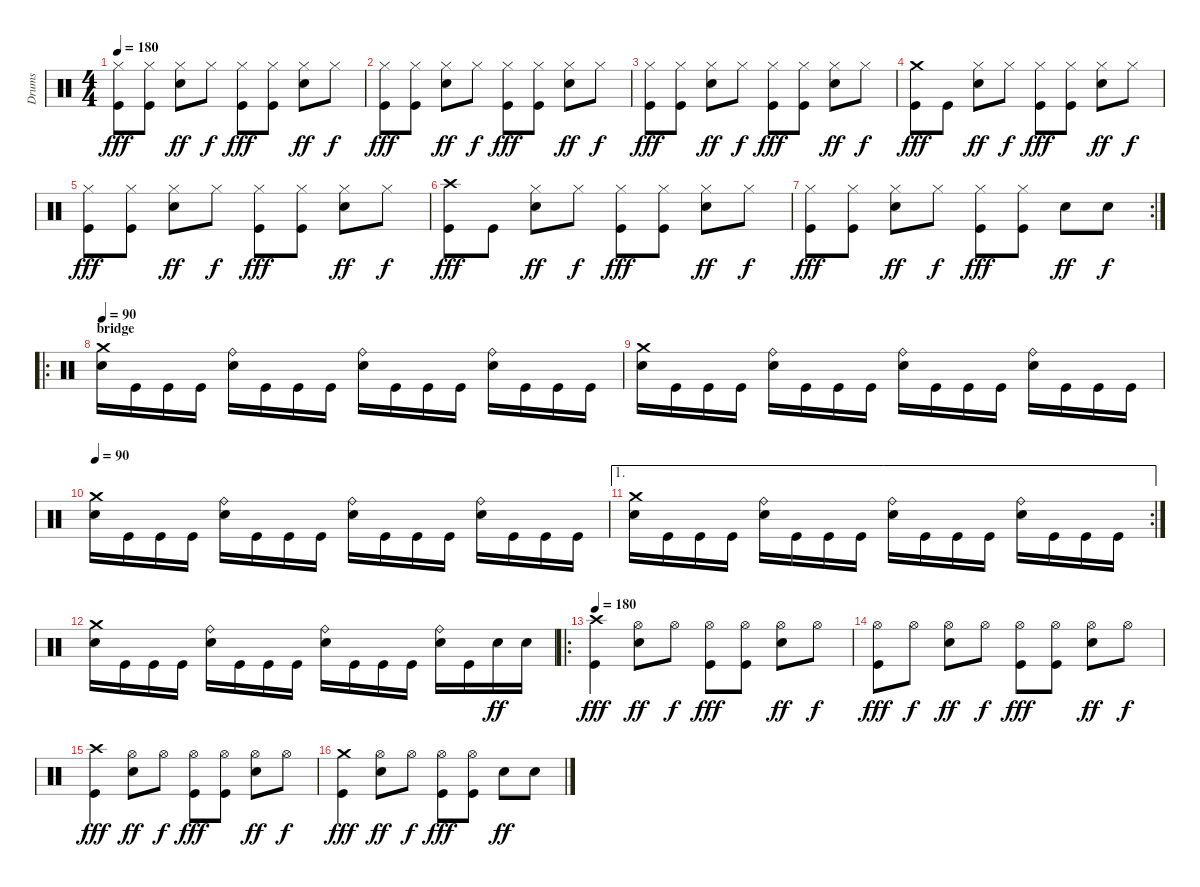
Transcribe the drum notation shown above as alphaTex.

\track ("Drums" "Drums") {instrument percussion}
\staff {score}
\articulation defaults
\ts (4 4)
\tempo 180
\clef neutral
\ks aminor
("Hi-Hat (closed)" "Kick (hit)").8{dy fff} ("Hi-Hat (closed)" "Kick (hit)").8 ("Hi-Hat (closed)" "Snare (hit) 2").8{dy ff} "Hi-Hat (closed)".8{dy f} ("Hi-Hat (closed)" "Kick (hit)").8{dy fff} ("Hi-Hat (closed)" "Kick (hit)").8 ("Hi-Hat (closed)" "Snare (hit) 2").8{dy ff} "Hi-Hat (closed)".8{dy f} |
("Hi-Hat (closed)" "Kick (hit)").8{dy fff} ("Hi-Hat (closed)" "Kick (hit)").8 ("Hi-Hat (closed)" "Snare (hit) 2").8{dy ff} "Hi-Hat (closed)".8{dy f} ("Hi-Hat (closed)" "Kick (hit)").8{dy fff} ("Hi-Hat (closed)" "Kick (hit)").8 ("Hi-Hat (closed)" "Snare (hit) 2").8{dy ff} "Hi-Hat (closed)".8{dy f} |
("Hi-Hat (closed)" "Kick (hit)").8{dy fff} ("Hi-Hat (closed)" "Kick (hit)").8 ("Hi-Hat (closed)" "Snare (hit) 2").8{dy ff} "Hi-Hat (closed)".8{dy f} ("Hi-Hat (closed)" "Kick (hit)").8{dy fff} ("Hi-Hat (closed)" "Kick (hit)").8 ("Hi-Hat (closed)" "Snare (hit) 2").8{dy ff} "Hi-Hat (closed)".8{dy f} |
("Crash medium (hit)" "Kick (hit)").8{dy fff} "Kick (hit)".8 ("Hi-Hat (closed)" "Snare (hit) 2").8{dy ff} "Hi-Hat (closed)".8{dy f} ("Hi-Hat (closed)" "Kick (hit)").8{dy fff} ("Hi-Hat (closed)" "Kick (hit)").8 ("Hi-Hat (closed)" "Snare (hit) 2").8{dy ff} "Hi-Hat (closed)".8{dy f} |
("Hi-Hat (closed)" "Kick (hit)").8{dy fff} ("Hi-Hat (closed)" "Kick (hit)").8 ("Hi-Hat (closed)" "Snare (hit) 2").8{dy ff} "Hi-Hat (closed)".8{dy f} ("Hi-Hat (closed)" "Kick (hit)").8{dy fff} ("Hi-Hat (closed)" "Kick (hit)").8 ("Hi-Hat (closed)" "Snare (hit) 2").8{dy ff} "Hi-Hat (closed)".8{dy f} |
("Crash high (hit)" "Kick (hit)").8{dy fff} "Kick (hit)".8 ("Hi-Hat (closed)" "Snare (hit) 2").8{dy ff} "Hi-Hat (closed)".8{dy f} ("Hi-Hat (closed)" "Kick (hit)").8{dy fff} ("Hi-Hat (closed)" "Kick (hit)").8 ("Hi-Hat (closed)" "Snare (hit) 2").8{dy ff} "Hi-Hat (closed)".8{dy f} |
\rc 2
("Hi-Hat (closed)" "Kick (hit)").8{dy fff} ("Hi-Hat (closed)" "Kick (hit)").8 ("Hi-Hat (closed)" "Snare (hit) 2").8{dy ff} "Hi-Hat (closed)".8{dy f} ("Hi-Hat (closed)" "Kick (hit)").8{dy fff} ("Hi-Hat (closed)" "Kick (hit)").8 "Snare (hit) 2".8{dy ff} "Snare (hit) 2".8{dy f} |
\ro
\section ("" "bridge")
\tempo 90
("Crash medium (hit)" "Snare (hit) 2").16 "Kick (hit)".16 "Kick (hit)".16 "Kick (hit)".16 ("Ride (bell)" "Snare (hit) 2").16 "Kick (hit)".16 "Kick (hit)".16 "Kick (hit)".16 ("Ride (bell)" "Snare (hit) 2").16 "Kick (hit)".16 "Kick (hit)".16 "Kick (hit)".16 ("Ride (bell)" "Snare (hit) 2").16 "Kick (hit)".16 "Kick (hit)".16 "Kick (hit)".16 |
("Crash medium (hit)" "Snare (hit) 2").16 "Kick (hit)".16 "Kick (hit)".16 "Kick (hit)".16 ("Ride (bell)" "Snare (hit) 2").16 "Kick (hit)".16 "Kick (hit)".16 "Kick (hit)".16 ("Ride (bell)" "Snare (hit) 2").16 "Kick (hit)".16 "Kick (hit)".16 "Kick (hit)".16 ("Ride (bell)" "Snare (hit) 2").16 "Kick (hit)".16 "Kick (hit)".16 "Kick (hit)".16 |
\tempo 90
("Crash medium (hit)" "Snare (hit) 2").16 "Kick (hit)".16 "Kick (hit)".16 "Kick (hit)".16 ("Ride (bell)" "Snare (hit) 2").16 "Kick (hit)".16 "Kick (hit)".16 "Kick (hit)".16 ("Ride (bell)" "Snare (hit) 2").16 "Kick (hit)".16 "Kick (hit)".16 "Kick (hit)".16 ("Ride (bell)" "Snare (hit) 2").16 "Kick (hit)".16 "Kick (hit)".16 "Kick (hit)".16 |
\ae 1
\rc 2
("Crash medium (hit)" "Snare (hit) 2").16 "Kick (hit)".16 "Kick (hit)".16 "Kick (hit)".16 ("Ride (bell)" "Snare (hit) 2").16 "Kick (hit)".16 "Kick (hit)".16 "Kick (hit)".16 ("Ride (bell)" "Snare (hit) 2").16 "Kick (hit)".16 "Kick (hit)".16 "Kick (hit)".16 ("Ride (bell)" "Snare (hit) 2").16 "Kick (hit)".16 "Kick (hit)".16 "Kick (hit)".16 |
("Crash medium (hit)" "Snare (hit) 2").16 "Kick (hit)".16 "Kick (hit)".16 "Kick (hit)".16 ("Ride (bell)" "Snare (hit) 2").16 "Kick (hit)".16 "Kick (hit)".16 "Kick (hit)".16 ("Ride (bell)" "Snare (hit) 2").16 "Kick (hit)".16 "Kick (hit)".16 "Kick (hit)".16 ("Ride (bell)" "Snare (hit) 2").16 "Kick (hit)".16 "Snare (hit) 2".16{dy ff} "Snare (hit) 2".16 |
\ro
\tempo 180
("Crash high (hit)" "Kick (hit)").4{dy fff} ("Hi-Hat (open)" "Snare (hit) 2").8{dy ff} "Hi-Hat (open)".8{dy f} ("Hi-Hat (open)" "Kick (hit)").8{dy fff} ("Hi-Hat (open)" "Kick (hit)").8 ("Hi-Hat (open)" "Snare (hit) 2").8{dy ff} "Hi-Hat (open)".8{dy f} |
("Hi-Hat (open)" "Kick (hit)").8{dy fff} "Hi-Hat (open)".8{dy f} ("Hi-Hat (open)" "Snare (hit) 2").8{dy ff} "Hi-Hat (open)".8{dy f} ("Hi-Hat (open)" "Kick (hit)").8{dy fff} ("Hi-Hat (open)" "Kick (hit)").8 ("Hi-Hat (open)" "Snare (hit) 2").8{dy ff} "Hi-Hat (open)".8{dy f} |
("Crash high (hit)" "Kick (hit)").4{dy fff} ("Hi-Hat (open)" "Snare (hit) 2").8{dy ff} "Hi-Hat (open)".8{dy f} ("Hi-Hat (open)" "Kick (hit)").8{dy fff} ("Hi-Hat (open)" "Kick (hit)").8 ("Hi-Hat (open)" "Snare (hit) 2").8{dy ff} "Hi-Hat (open)".8{dy f} |
("Crash medium (hit)" "Kick (hit)").4{dy fff} ("Hi-Hat (open)" "Snare (hit) 2").8{dy ff} "Hi-Hat (open)".8{dy f} ("Hi-Hat (open)" "Kick (hit)").8{dy fff} ("Hi-Hat (open)" "Kick (hit)").8 "Snare (hit) 2".8{dy ff} "Snare (hit) 2".8
